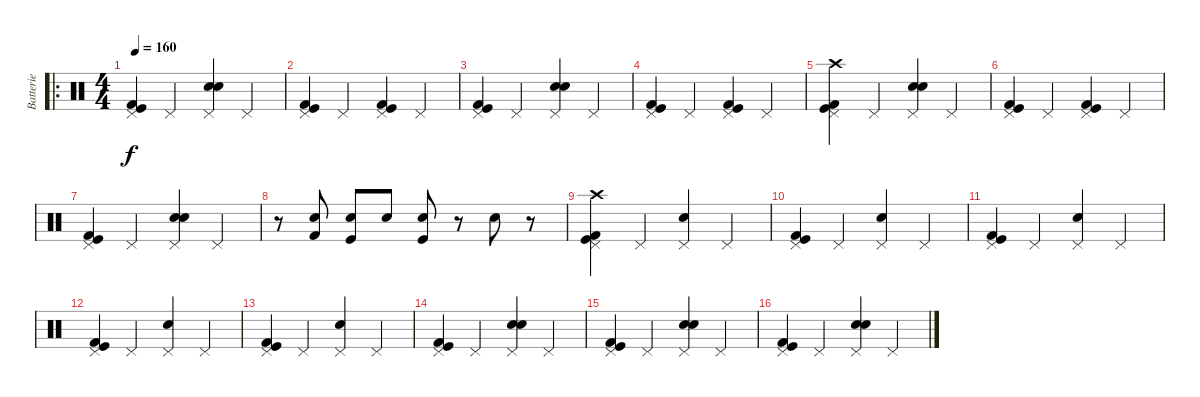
\track ("Batterie" "Batterie") {instrument percussion}
\staff {score}
\articulation defaults
\ro
\ts (4 4)
\tempo 160
\clef neutral
\ks c
("Pedal Hi-Hat (hit)" "Kick (hit)" "Kick (hit) 2").4{dy f} "Pedal Hi-Hat (hit)".4 ("Pedal Hi-Hat (hit)" "Electric Snare (hit)" "Electric Snare (hit)").4 "Pedal Hi-Hat (hit)".4 |
("Pedal Hi-Hat (hit)" "Kick (hit)" "Kick (hit) 2").4 "Pedal Hi-Hat (hit)".4 ("Pedal Hi-Hat (hit)" "Kick (hit)" "Kick (hit) 2").4 "Pedal Hi-Hat (hit)".4 |
("Pedal Hi-Hat (hit)" "Kick (hit)" "Kick (hit) 2").4 "Pedal Hi-Hat (hit)".4 ("Pedal Hi-Hat (hit)" "Electric Snare (hit)" "Electric Snare (hit)").4 "Pedal Hi-Hat (hit)".4 |
("Pedal Hi-Hat (hit)" "Kick (hit)" "Kick (hit) 2").4 "Pedal Hi-Hat (hit)".4 ("Pedal Hi-Hat (hit)" "Kick (hit)" "Kick (hit) 2").4 "Pedal Hi-Hat (hit)".4 |
("Crash high (hit)" "Pedal Hi-Hat (hit)" "Kick (hit)" "Kick (hit) 2").4 "Pedal Hi-Hat (hit)".4 ("Pedal Hi-Hat (hit)" "Electric Snare (hit)" "Electric Snare (hit)").4 "Pedal Hi-Hat (hit)".4 |
("Pedal Hi-Hat (hit)" "Kick (hit)" "Kick (hit) 2").4 "Pedal Hi-Hat (hit)".4 ("Pedal Hi-Hat (hit)" "Kick (hit)" "Kick (hit) 2").4 "Pedal Hi-Hat (hit)".4 |
("Pedal Hi-Hat (hit)" "Kick (hit)" "Kick (hit) 2").4 "Pedal Hi-Hat (hit)".4 ("Pedal Hi-Hat (hit)" "Electric Snare (hit)" "Electric Snare (hit)").4 "Pedal Hi-Hat (hit)".4 |
r.8 ("Electric Snare (hit)" "Kick (hit) 2").8 ("Electric Snare (hit)" "Kick (hit)").8 "Snare (hit) 2".8 ("Snare (hit) 2" "Kick (hit)").8 r.8 "Electric Snare (hit)".8 r.8 |
("Pedal Hi-Hat (hit)" "Crash high (hit)" "Kick (hit) 2" "Kick (hit)").4 "Pedal Hi-Hat (hit)".4 ("Pedal Hi-Hat (hit)" "Electric Snare (hit)").4 "Pedal Hi-Hat (hit)".4 |
("Pedal Hi-Hat (hit)" "Kick (hit) 2" "Kick (hit)").4 "Pedal Hi-Hat (hit)".4 ("Pedal Hi-Hat (hit)" "Electric Snare (hit)").4 "Pedal Hi-Hat (hit)".4 |
("Pedal Hi-Hat (hit)" "Kick (hit) 2" "Kick (hit)").4 "Pedal Hi-Hat (hit)".4 ("Pedal Hi-Hat (hit)" "Electric Snare (hit)").4 "Pedal Hi-Hat (hit)".4 |
("Pedal Hi-Hat (hit)" "Kick (hit) 2" "Kick (hit)").4 "Pedal Hi-Hat (hit)".4 ("Pedal Hi-Hat (hit)" "Electric Snare (hit)").4 "Pedal Hi-Hat (hit)".4 |
("Pedal Hi-Hat (hit)" "Kick (hit) 2" "Kick (hit)").4 "Pedal Hi-Hat (hit)".4 ("Pedal Hi-Hat (hit)" "Electric Snare (hit)").4 "Pedal Hi-Hat (hit)".4 |
("Pedal Hi-Hat (hit)" "Kick (hit) 2" "Kick (hit)").4 "Pedal Hi-Hat (hit)".4 ("Pedal Hi-Hat (hit)" "Electric Snare (hit)" "Snare (hit) 2").4 "Pedal Hi-Hat (hit)".4 |
("Pedal Hi-Hat (hit)" "Kick (hit) 2" "Kick (hit)").4 "Pedal Hi-Hat (hit)".4 ("Pedal Hi-Hat (hit)" "Electric Snare (hit)" "Snare (hit) 2").4 "Pedal Hi-Hat (hit)".4 |
("Pedal Hi-Hat (hit)" "Kick (hit) 2" "Kick (hit)").4 "Pedal Hi-Hat (hit)".4 ("Pedal Hi-Hat (hit)" "Electric Snare (hit)" "Snare (hit) 2").4 "Pedal Hi-Hat (hit)".4
